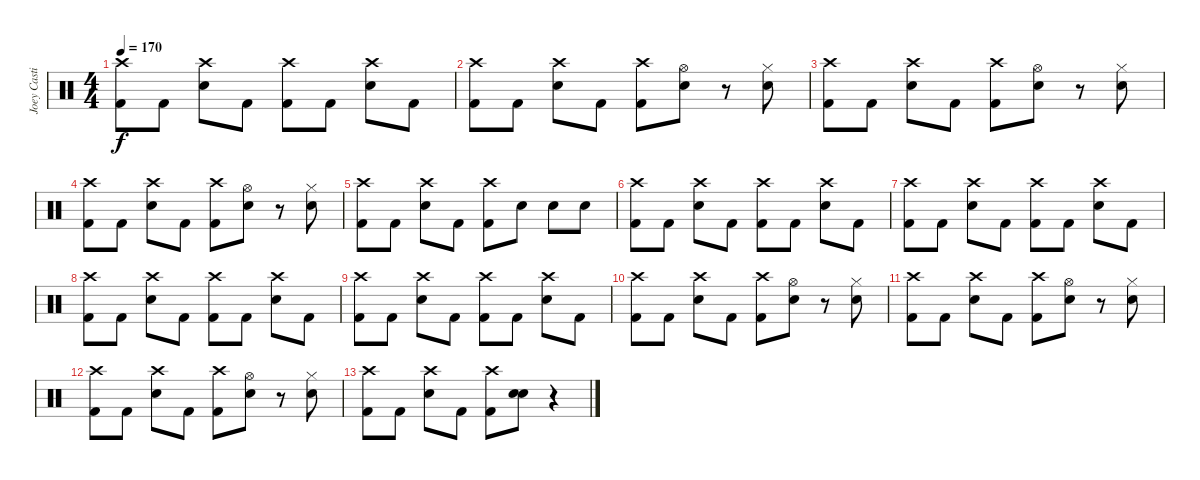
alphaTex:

\track ("Joey Castillo - drums" "Joey Casti") {instrument percussion}
\staff {score}
\articulation defaults
\ts (4 4)
\tempo 170
\clef neutral
\ks c
("Kick (hit) 2" "Crash high (hit)").8{dy f} "Kick (hit) 2".8 ("Electric Snare (hit)" "Crash high (hit)").8 "Kick (hit) 2".8 ("Kick (hit) 2" "Crash high (hit)").8 "Kick (hit) 2".8 ("Electric Snare (hit)" "Crash high (hit)").8 "Kick (hit) 2".8 |
("Kick (hit) 2" "Crash high (hit)").8 "Kick (hit) 2".8 ("Electric Snare (hit)" "Crash high (hit)").8 "Kick (hit) 2".8 ("Kick (hit) 2" "Crash high (hit)").8 ("Electric Snare (hit)" "Hi-Hat (open)").8 r.8 ("Electric Snare (hit)" "Hi-Hat (closed)").8 |
("Kick (hit) 2" "Crash high (hit)").8 "Kick (hit) 2".8 ("Electric Snare (hit)" "Crash high (hit)").8 "Kick (hit) 2".8 ("Kick (hit) 2" "Crash high (hit)").8 ("Electric Snare (hit)" "Hi-Hat (open)").8 r.8 ("Electric Snare (hit)" "Hi-Hat (closed)").8 |
("Kick (hit) 2" "Crash high (hit)").8 "Kick (hit) 2".8 ("Electric Snare (hit)" "Crash high (hit)").8 "Kick (hit) 2".8 ("Kick (hit) 2" "Crash high (hit)").8 ("Electric Snare (hit)" "Hi-Hat (open)").8 r.8 ("Electric Snare (hit)" "Hi-Hat (closed)").8 |
("Kick (hit) 2" "Crash high (hit)").8 "Kick (hit) 2".8 ("Electric Snare (hit)" "Crash high (hit)").8 "Kick (hit) 2".8 ("Kick (hit) 2" "Crash high (hit)").8 "Electric Snare (hit)".8 "Electric Snare (hit)".8 "Electric Snare (hit)".8 |
\section ("" "")
("Kick (hit) 2" "Crash high (hit)").8 "Kick (hit) 2".8 ("Electric Snare (hit)" "Crash high (hit)").8 "Kick (hit) 2".8 ("Kick (hit) 2" "Crash high (hit)").8 "Kick (hit) 2".8 ("Electric Snare (hit)" "Crash high (hit)").8 "Kick (hit) 2".8 |
("Kick (hit) 2" "Crash high (hit)").8 "Kick (hit) 2".8 ("Electric Snare (hit)" "Crash high (hit)").8 "Kick (hit) 2".8 ("Kick (hit) 2" "Crash high (hit)").8 "Kick (hit) 2".8 ("Electric Snare (hit)" "Crash high (hit)").8 "Kick (hit) 2".8 |
("Kick (hit) 2" "Crash high (hit)").8 "Kick (hit) 2".8 ("Electric Snare (hit)" "Crash high (hit)").8 "Kick (hit) 2".8 ("Kick (hit) 2" "Crash high (hit)").8 "Kick (hit) 2".8 ("Electric Snare (hit)" "Crash high (hit)").8 "Kick (hit) 2".8 |
("Kick (hit) 2" "Crash high (hit)").8 "Kick (hit) 2".8 ("Electric Snare (hit)" "Crash high (hit)").8 "Kick (hit) 2".8 ("Kick (hit) 2" "Crash high (hit)").8 "Kick (hit) 2".8 ("Electric Snare (hit)" "Crash high (hit)").8 "Kick (hit) 2".8 |
("Kick (hit) 2" "Crash high (hit)").8 "Kick (hit) 2".8 ("Electric Snare (hit)" "Crash high (hit)").8 "Kick (hit) 2".8 ("Kick (hit) 2" "Crash high (hit)").8 ("Electric Snare (hit)" "Hi-Hat (open)").8 r.8 ("Electric Snare (hit)" "Hi-Hat (closed)").8 |
("Kick (hit) 2" "Crash high (hit)").8 "Kick (hit) 2".8 ("Electric Snare (hit)" "Crash high (hit)").8 "Kick (hit) 2".8 ("Kick (hit) 2" "Crash high (hit)").8 ("Electric Snare (hit)" "Hi-Hat (open)").8 r.8 ("Electric Snare (hit)" "Hi-Hat (closed)").8 |
("Kick (hit) 2" "Crash high (hit)").8 "Kick (hit) 2".8 ("Electric Snare (hit)" "Crash high (hit)").8 "Kick (hit) 2".8 ("Kick (hit) 2" "Crash high (hit)").8 ("Electric Snare (hit)" "Hi-Hat (open)").8 r.8 ("Electric Snare (hit)" "Hi-Hat (closed)").8 |
("Kick (hit) 2" "Crash high (hit)").8 "Kick (hit) 2".8 ("Electric Snare (hit)" "Crash high (hit)").8 "Kick (hit) 2".8 ("Kick (hit) 2" "Crash high (hit)").8 ("Electric Snare (hit)" "Snare (hit) 2").8 r.4
